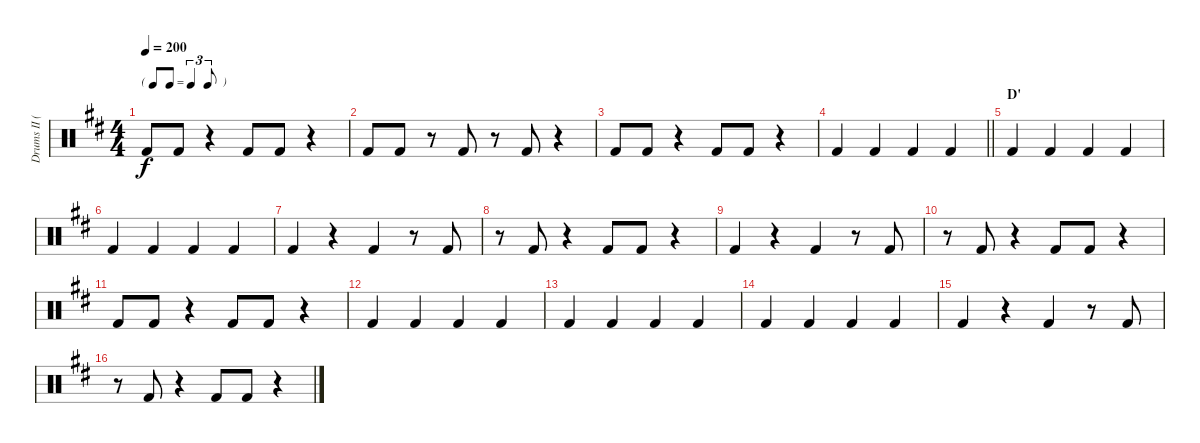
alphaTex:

\track ("Drums II (Ruka)" "Drums II (") {instrument percussion}
\staff {score}
\articulation defaults
\ts (4 4)
\tf triplet8th
\tempo 200
\clef neutral
\ks d "Kick (hit) 2".8{dy f} "Kick (hit) 2".8
r.4 "Kick (hit) 2".8 "Kick (hit) 2".8 r.4 |
"Kick (hit) 2".8 "Kick (hit) 2".8 r.8 "Kick (hit) 2".8 r.8 "Kick (hit) 2".8 r.4 |
"Kick (hit) 2".8 "Kick (hit) 2".8 r.4 "Kick (hit) 2".8 "Kick (hit) 2".8 r.4 |
\barLineRight lightlight "Kick (hit) 2".4 "Kick (hit) 2".4 "Kick (hit) 2".4 "Kick (hit) 2".4
|
\section ("" "D'")
"Kick (hit) 2".4 "Kick (hit) 2".4 "Kick (hit) 2".4 "Kick (hit) 2".4 |
"Kick (hit) 2".4 "Kick (hit) 2".4 "Kick (hit) 2".4 "Kick (hit) 2".4 |
"Kick (hit) 2".4 r.4 "Kick (hit) 2".4 r.8 "Kick (hit) 2".8 |
r.8 "Kick (hit) 2".8 r.4 "Kick (hit) 2".8 "Kick (hit) 2".8 r.4 |
"Kick (hit) 2".4 r.4 "Kick (hit) 2".4 r.8 "Kick (hit) 2".8 |
r.8 "Kick (hit) 2".8 r.4 "Kick (hit) 2".8 "Kick (hit) 2".8 r.4 |
"Kick (hit) 2".8 "Kick (hit) 2".8 r.4 "Kick (hit) 2".8 "Kick (hit) 2".8 r.4 |
"Kick (hit) 2".4 "Kick (hit) 2".4 "Kick (hit) 2".4 "Kick (hit) 2".4 |
"Kick (hit) 2".4 "Kick (hit) 2".4 "Kick (hit) 2".4 "Kick (hit) 2".4 |
"Kick (hit) 2".4 "Kick (hit) 2".4 "Kick (hit) 2".4 "Kick (hit) 2".4 |
"Kick (hit) 2".4 r.4 "Kick (hit) 2".4 r.8 "Kick (hit) 2".8 |
r.8 "Kick (hit) 2".8 r.4 "Kick (hit) 2".8 "Kick (hit) 2".8 r.4
